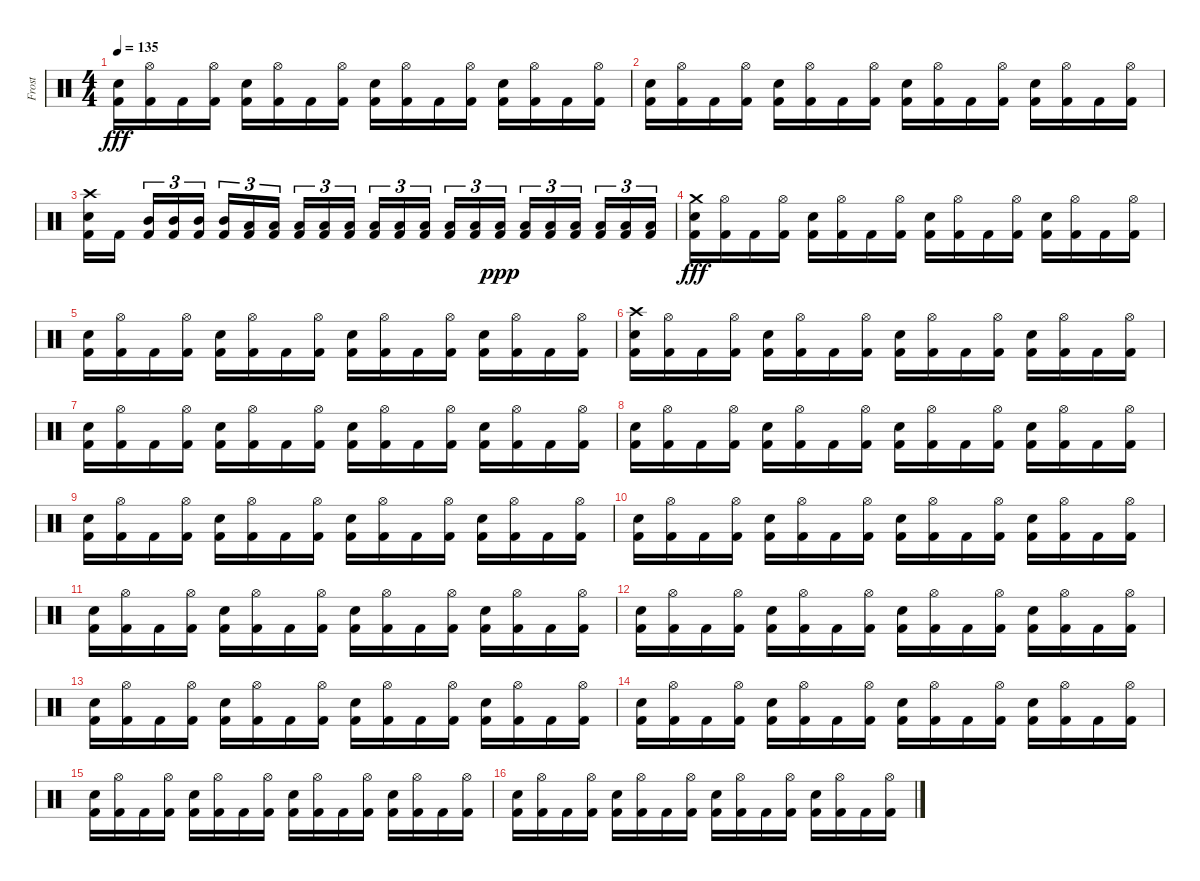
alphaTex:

\track ("Frost" "Frost") {instrument percussion}
\staff {score}
\articulation defaults
\ts (4 4)
\tempo 135
\clef neutral
\ks c
("Electric Snare (hit)" "Kick (hit) 2").16{dy fff} ("Hi-Hat (open)" "Kick (hit) 2").16 "Kick (hit) 2".16 ("Hi-Hat (open)" "Kick (hit) 2").16 ("Electric Snare (hit)" "Kick (hit) 2").16 ("Hi-Hat (open)" "Kick (hit) 2").16 "Kick (hit) 2".16 ("Hi-Hat (open)" "Kick (hit) 2").16 ("Electric Snare (hit)" "Kick (hit) 2").16 ("Hi-Hat (open)" "Kick (hit) 2").16 "Kick (hit) 2".16 ("Hi-Hat (open)" "Kick (hit) 2").16 ("Electric Snare (hit)" "Kick (hit) 2").16 ("Hi-Hat (open)" "Kick (hit) 2").16 "Kick (hit) 2".16 ("Hi-Hat (open)" "Kick (hit) 2").16 |
("Electric Snare (hit)" "Kick (hit) 2").16 ("Hi-Hat (open)" "Kick (hit) 2").16 "Kick (hit) 2".16 ("Hi-Hat (open)" "Kick (hit) 2").16 ("Electric Snare (hit)" "Kick (hit) 2").16 ("Hi-Hat (open)" "Kick (hit) 2").16 "Kick (hit) 2".16 ("Hi-Hat (open)" "Kick (hit) 2").16 ("Electric Snare (hit)" "Kick (hit) 2").16 ("Hi-Hat (open)" "Kick (hit) 2").16 "Kick (hit) 2".16 ("Hi-Hat (open)" "Kick (hit) 2").16 ("Electric Snare (hit)" "Kick (hit) 2").16 ("Hi-Hat (open)" "Kick (hit) 2").16 "Kick (hit) 2".16 ("Hi-Hat (open)" "Kick (hit) 2").16 |
("Crash high (hit)" "Electric Snare (hit)" "Kick (hit) 2").16 "Kick (hit) 2".16{beam splitsecondary} ("Mid Tom (hit)" "Kick (hit) 2").16{tu (3 2)} ("Mid Tom (hit)" "Kick (hit) 2").16{tu (3 2)} ("Mid Tom (hit)" "Kick (hit) 2").16{tu (3 2)} ("Mid Tom (hit)" "Kick (hit) 2").16{tu (3 2)} ("Low Tom (hit)" "Kick (hit) 2").16{tu (3 2)} ("Low Tom (hit)" "Kick (hit) 2").16{tu (3 2) beam splitsecondary} ("Low Tom (hit)" "Kick (hit) 2").16{tu (3 2)} ("Low Tom (hit)" "Kick (hit) 2").16{tu (3 2)} ("Low Floor Tom (hit)" "Kick (hit) 2").16{tu (3 2)} ("Low Floor Tom (hit)" "Kick (hit) 2").16{tu (3 2)} ("Low Floor Tom (hit)" "Kick (hit) 2").16{tu (3 2)} ("Low Floor Tom (hit)" "Kick (hit) 2").16{tu (3 2) beam splitsecondary} ("Low Floor Tom (hit)" "Kick (hit) 2").16{tu (3 2)} ("Low Floor Tom (hit)" "Kick (hit) 2").16{tu (3 2)} ("Low Floor Tom (hit)" "Kick (hit) 2").16{tu (3 2) dy ppp} ("Low Floor Tom (hit)" "Kick (hit) 2").16{tu (3 2)} ("Low Floor Tom (hit)" "Kick (hit) 2").16{tu (3 2)} ("Low Floor Tom (hit)" "Kick (hit) 2").16{tu (3 2) beam splitsecondary} ("Low Floor Tom (hit)" "Kick (hit) 2").16{tu (3 2)} ("Low Floor Tom (hit)" "Kick (hit) 2").16{tu (3 2)} ("Low Floor Tom (hit)" "Kick (hit) 2").16{tu (3 2)} |
("Crash medium (hit)" "Electric Snare (hit)" "Kick (hit) 2").16{dy fff} ("Hi-Hat (open)" "Kick (hit) 2").16 "Kick (hit) 2".16 ("Hi-Hat (open)" "Kick (hit) 2").16 ("Electric Snare (hit)" "Kick (hit) 2").16 ("Hi-Hat (open)" "Kick (hit) 2").16 "Kick (hit) 2".16 ("Hi-Hat (open)" "Kick (hit) 2").16 ("Electric Snare (hit)" "Kick (hit) 2").16 ("Hi-Hat (open)" "Kick (hit) 2").16 "Kick (hit) 2".16 ("Hi-Hat (open)" "Kick (hit) 2").16 ("Electric Snare (hit)" "Kick (hit) 2").16 ("Hi-Hat (open)" "Kick (hit) 2").16 "Kick (hit) 2".16 ("Hi-Hat (open)" "Kick (hit) 2").16 |
("Electric Snare (hit)" "Kick (hit) 2").16 ("Hi-Hat (open)" "Kick (hit) 2").16 "Kick (hit) 2".16 ("Hi-Hat (open)" "Kick (hit) 2").16 ("Electric Snare (hit)" "Kick (hit) 2").16 ("Hi-Hat (open)" "Kick (hit) 2").16 "Kick (hit) 2".16 ("Hi-Hat (open)" "Kick (hit) 2").16 ("Electric Snare (hit)" "Kick (hit) 2").16 ("Hi-Hat (open)" "Kick (hit) 2").16 "Kick (hit) 2".16 ("Hi-Hat (open)" "Kick (hit) 2").16 ("Electric Snare (hit)" "Kick (hit) 2").16 ("Hi-Hat (open)" "Kick (hit) 2").16 "Kick (hit) 2".16 ("Hi-Hat (open)" "Kick (hit) 2").16 |
("Crash high (hit)" "Electric Snare (hit)" "Kick (hit) 2").16 ("Hi-Hat (open)" "Kick (hit) 2").16 "Kick (hit) 2".16 ("Hi-Hat (open)" "Kick (hit) 2").16 ("Electric Snare (hit)" "Kick (hit) 2").16 ("Hi-Hat (open)" "Kick (hit) 2").16 "Kick (hit) 2".16 ("Hi-Hat (open)" "Kick (hit) 2").16 ("Electric Snare (hit)" "Kick (hit) 2").16 ("Hi-Hat (open)" "Kick (hit) 2").16 "Kick (hit) 2".16 ("Hi-Hat (open)" "Kick (hit) 2").16 ("Electric Snare (hit)" "Kick (hit) 2").16 ("Hi-Hat (open)" "Kick (hit) 2").16 "Kick (hit) 2".16 ("Hi-Hat (open)" "Kick (hit) 2").16 |
("Electric Snare (hit)" "Kick (hit) 2").16 ("Hi-Hat (open)" "Kick (hit) 2").16 "Kick (hit) 2".16 ("Hi-Hat (open)" "Kick (hit) 2").16 ("Electric Snare (hit)" "Kick (hit) 2").16 ("Hi-Hat (open)" "Kick (hit) 2").16 "Kick (hit) 2".16 ("Hi-Hat (open)" "Kick (hit) 2").16 ("Electric Snare (hit)" "Kick (hit) 2").16 ("Hi-Hat (open)" "Kick (hit) 2").16 "Kick (hit) 2".16 ("Hi-Hat (open)" "Kick (hit) 2").16 ("Electric Snare (hit)" "Kick (hit) 2").16 ("Hi-Hat (open)" "Kick (hit) 2").16 "Kick (hit) 2".16 ("Hi-Hat (open)" "Kick (hit) 2").16 |
("Electric Snare (hit)" "Kick (hit) 2").16 ("Hi-Hat (open)" "Kick (hit) 2").16 "Kick (hit) 2".16 ("Hi-Hat (open)" "Kick (hit) 2").16 ("Electric Snare (hit)" "Kick (hit) 2").16 ("Hi-Hat (open)" "Kick (hit) 2").16 "Kick (hit) 2".16 ("Hi-Hat (open)" "Kick (hit) 2").16 ("Electric Snare (hit)" "Kick (hit) 2").16 ("Hi-Hat (open)" "Kick (hit) 2").16 "Kick (hit) 2".16 ("Hi-Hat (open)" "Kick (hit) 2").16 ("Electric Snare (hit)" "Kick (hit) 2").16 ("Hi-Hat (open)" "Kick (hit) 2").16 "Kick (hit) 2".16 ("Hi-Hat (open)" "Kick (hit) 2").16 |
("Electric Snare (hit)" "Kick (hit) 2").16 ("Hi-Hat (open)" "Kick (hit) 2").16 "Kick (hit) 2".16 ("Hi-Hat (open)" "Kick (hit) 2").16 ("Electric Snare (hit)" "Kick (hit) 2").16 ("Hi-Hat (open)" "Kick (hit) 2").16 "Kick (hit) 2".16 ("Hi-Hat (open)" "Kick (hit) 2").16 ("Electric Snare (hit)" "Kick (hit) 2").16 ("Hi-Hat (open)" "Kick (hit) 2").16 "Kick (hit) 2".16 ("Hi-Hat (open)" "Kick (hit) 2").16 ("Electric Snare (hit)" "Kick (hit) 2").16 ("Hi-Hat (open)" "Kick (hit) 2").16 "Kick (hit) 2".16 ("Hi-Hat (open)" "Kick (hit) 2").16 |
("Electric Snare (hit)" "Kick (hit) 2").16 ("Hi-Hat (open)" "Kick (hit) 2").16 "Kick (hit) 2".16 ("Hi-Hat (open)" "Kick (hit) 2").16 ("Electric Snare (hit)" "Kick (hit) 2").16 ("Hi-Hat (open)" "Kick (hit) 2").16 "Kick (hit) 2".16 ("Hi-Hat (open)" "Kick (hit) 2").16 ("Electric Snare (hit)" "Kick (hit) 2").16 ("Hi-Hat (open)" "Kick (hit) 2").16 "Kick (hit) 2".16 ("Hi-Hat (open)" "Kick (hit) 2").16 ("Electric Snare (hit)" "Kick (hit) 2").16 ("Hi-Hat (open)" "Kick (hit) 2").16 "Kick (hit) 2".16 ("Hi-Hat (open)" "Kick (hit) 2").16 |
("Electric Snare (hit)" "Kick (hit) 2").16 ("Hi-Hat (open)" "Kick (hit) 2").16 "Kick (hit) 2".16 ("Hi-Hat (open)" "Kick (hit) 2").16 ("Electric Snare (hit)" "Kick (hit) 2").16 ("Hi-Hat (open)" "Kick (hit) 2").16 "Kick (hit) 2".16 ("Hi-Hat (open)" "Kick (hit) 2").16 ("Electric Snare (hit)" "Kick (hit) 2").16 ("Hi-Hat (open)" "Kick (hit) 2").16 "Kick (hit) 2".16 ("Hi-Hat (open)" "Kick (hit) 2").16 ("Electric Snare (hit)" "Kick (hit) 2").16 ("Hi-Hat (open)" "Kick (hit) 2").16 "Kick (hit) 2".16 ("Hi-Hat (open)" "Kick (hit) 2").16 |
("Electric Snare (hit)" "Kick (hit) 2").16 ("Hi-Hat (open)" "Kick (hit) 2").16 "Kick (hit) 2".16 ("Hi-Hat (open)" "Kick (hit) 2").16 ("Electric Snare (hit)" "Kick (hit) 2").16 ("Hi-Hat (open)" "Kick (hit) 2").16 "Kick (hit) 2".16 ("Hi-Hat (open)" "Kick (hit) 2").16 ("Electric Snare (hit)" "Kick (hit) 2").16 ("Hi-Hat (open)" "Kick (hit) 2").16 "Kick (hit) 2".16 ("Hi-Hat (open)" "Kick (hit) 2").16 ("Electric Snare (hit)" "Kick (hit) 2").16 ("Hi-Hat (open)" "Kick (hit) 2").16 "Kick (hit) 2".16 ("Hi-Hat (open)" "Kick (hit) 2").16 |
("Electric Snare (hit)" "Kick (hit) 2").16 ("Hi-Hat (open)" "Kick (hit) 2").16 "Kick (hit) 2".16 ("Hi-Hat (open)" "Kick (hit) 2").16 ("Electric Snare (hit)" "Kick (hit) 2").16 ("Hi-Hat (open)" "Kick (hit) 2").16 "Kick (hit) 2".16 ("Hi-Hat (open)" "Kick (hit) 2").16 ("Electric Snare (hit)" "Kick (hit) 2").16 ("Hi-Hat (open)" "Kick (hit) 2").16 "Kick (hit) 2".16 ("Hi-Hat (open)" "Kick (hit) 2").16 ("Electric Snare (hit)" "Kick (hit) 2").16 ("Hi-Hat (open)" "Kick (hit) 2").16 "Kick (hit) 2".16 ("Hi-Hat (open)" "Kick (hit) 2").16 |
("Electric Snare (hit)" "Kick (hit) 2").16 ("Hi-Hat (open)" "Kick (hit) 2").16 "Kick (hit) 2".16 ("Hi-Hat (open)" "Kick (hit) 2").16 ("Electric Snare (hit)" "Kick (hit) 2").16 ("Hi-Hat (open)" "Kick (hit) 2").16 "Kick (hit) 2".16 ("Hi-Hat (open)" "Kick (hit) 2").16 ("Electric Snare (hit)" "Kick (hit) 2").16 ("Hi-Hat (open)" "Kick (hit) 2").16 "Kick (hit) 2".16 ("Hi-Hat (open)" "Kick (hit) 2").16 ("Electric Snare (hit)" "Kick (hit) 2").16 ("Hi-Hat (open)" "Kick (hit) 2").16 "Kick (hit) 2".16 ("Hi-Hat (open)" "Kick (hit) 2").16 |
("Electric Snare (hit)" "Kick (hit) 2").16 ("Hi-Hat (open)" "Kick (hit) 2").16 "Kick (hit) 2".16 ("Hi-Hat (open)" "Kick (hit) 2").16 ("Electric Snare (hit)" "Kick (hit) 2").16 ("Hi-Hat (open)" "Kick (hit) 2").16 "Kick (hit) 2".16 ("Hi-Hat (open)" "Kick (hit) 2").16 ("Electric Snare (hit)" "Kick (hit) 2").16 ("Hi-Hat (open)" "Kick (hit) 2").16 "Kick (hit) 2".16 ("Hi-Hat (open)" "Kick (hit) 2").16 ("Electric Snare (hit)" "Kick (hit) 2").16 ("Hi-Hat (open)" "Kick (hit) 2").16 "Kick (hit) 2".16 ("Hi-Hat (open)" "Kick (hit) 2").16 |
("Electric Snare (hit)" "Kick (hit) 2").16 ("Hi-Hat (open)" "Kick (hit) 2").16 "Kick (hit) 2".16 ("Hi-Hat (open)" "Kick (hit) 2").16 ("Electric Snare (hit)" "Kick (hit) 2").16 ("Hi-Hat (open)" "Kick (hit) 2").16 "Kick (hit) 2".16 ("Hi-Hat (open)" "Kick (hit) 2").16 ("Electric Snare (hit)" "Kick (hit) 2").16 ("Hi-Hat (open)" "Kick (hit) 2").16 "Kick (hit) 2".16 ("Hi-Hat (open)" "Kick (hit) 2").16 ("Electric Snare (hit)" "Kick (hit) 2").16 ("Hi-Hat (open)" "Kick (hit) 2").16 "Kick (hit) 2".16 ("Hi-Hat (open)" "Kick (hit) 2").16
